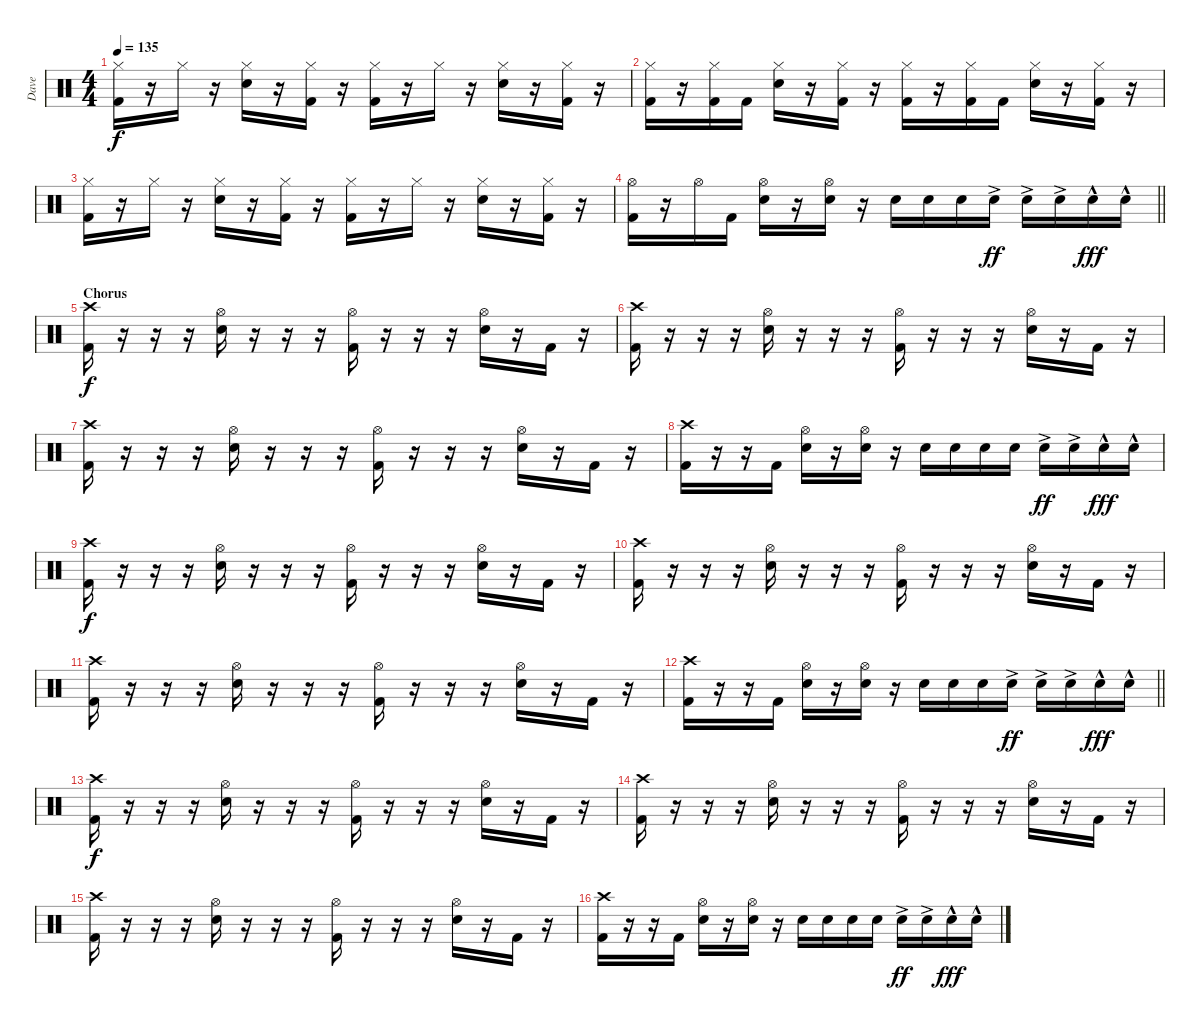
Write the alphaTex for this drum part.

\track ("Dave" "Dave") {instrument percussion}
\staff {score}
\articulation defaults
\ts (4 4)
\tempo 135
\clef neutral
\ks c
("Hi-Hat (closed)" "Kick (hit) 2").16{dy f} r.16 "Hi-Hat (closed)".16 r.16 ("Hi-Hat (closed)" "Electric Snare (hit)").16 r.16 ("Hi-Hat (closed)" "Kick (hit) 2").16 r.16 ("Hi-Hat (closed)" "Kick (hit) 2").16 r.16 "Hi-Hat (closed)".16 r.16 ("Hi-Hat (closed)" "Electric Snare (hit)").16 r.16 ("Hi-Hat (closed)" "Kick (hit) 2").16 r.16 |
("Hi-Hat (closed)" "Kick (hit) 2").16 r.16 ("Hi-Hat (closed)" "Kick (hit) 2").16 "Kick (hit) 2".16 ("Hi-Hat (closed)" "Electric Snare (hit)").16 r.16 ("Hi-Hat (closed)" "Kick (hit) 2").16 r.16 ("Hi-Hat (closed)" "Kick (hit) 2").16 r.16 ("Hi-Hat (closed)" "Kick (hit) 2").16 "Kick (hit) 2".16 ("Hi-Hat (closed)" "Electric Snare (hit)").16 r.16 ("Hi-Hat (closed)" "Kick (hit) 2").16 r.16 |
("Hi-Hat (closed)" "Kick (hit) 2").16 r.16 "Hi-Hat (closed)".16 r.16 ("Hi-Hat (closed)" "Electric Snare (hit)").16 r.16 ("Hi-Hat (closed)" "Kick (hit) 2").16 r.16 ("Hi-Hat (closed)" "Kick (hit) 2").16 r.16 "Hi-Hat (closed)".16 r.16 ("Hi-Hat (closed)" "Electric Snare (hit)").16 r.16 ("Hi-Hat (closed)" "Kick (hit) 2").16 r.16 |
\barLineRight lightlight
("Hi-Hat (open)" "Kick (hit) 2").16 r.16 "Hi-Hat (open)".16 "Kick (hit) 2".16 ("Hi-Hat (open)" "Electric Snare (hit)").16 r.16 ("Hi-Hat (open)" "Electric Snare (hit)").16 r.16 "Electric Snare (hit)".16 "Electric Snare (hit)".16 "Electric Snare (hit)".16 "Electric Snare (hit)"{ac}.16{dy ff} "Electric Snare (hit)"{ac}.16 "Electric Snare (hit)"{ac}.16 "Electric Snare (hit)"{hac}.16{dy fff} "Electric Snare (hit)"{hac}.16 |
\section ("" "Chorus")
("Crash high (hit)" "Kick (hit) 2").16{dy f} r.16 r.16 r.16 ("Hi-Hat (open)" "Electric Snare (hit)").16 r.16 r.16 r.16 ("Hi-Hat (open)" "Kick (hit) 2").16 r.16 r.16 r.16 ("Hi-Hat (open)" "Electric Snare (hit)").16 r.16 "Kick (hit) 2".16 r.16 |
("Crash high (hit)" "Kick (hit) 2").16 r.16 r.16 r.16 ("Hi-Hat (open)" "Electric Snare (hit)").16 r.16 r.16 r.16 ("Hi-Hat (open)" "Kick (hit) 2").16 r.16 r.16 r.16 ("Hi-Hat (open)" "Electric Snare (hit)").16 r.16 "Kick (hit) 2".16 r.16 |
("Crash high (hit)" "Kick (hit) 2").16 r.16 r.16 r.16 ("Hi-Hat (open)" "Electric Snare (hit)").16 r.16 r.16 r.16 ("Hi-Hat (open)" "Kick (hit) 2").16 r.16 r.16 r.16 ("Hi-Hat (open)" "Electric Snare (hit)").16 r.16 "Kick (hit) 2".16 r.16 |
("Crash high (hit)" "Kick (hit) 2").16 r.16 r.16 "Kick (hit) 2".16 ("Hi-Hat (open)" "Electric Snare (hit)").16 r.16 ("Hi-Hat (open)" "Electric Snare (hit)").16 r.16 "Electric Snare (hit)".16 "Electric Snare (hit)".16 "Electric Snare (hit)".16 "Electric Snare (hit)".16 "Electric Snare (hit)"{ac}.16{dy ff} "Electric Snare (hit)"{ac}.16 "Electric Snare (hit)"{hac}.16{dy fff} "Electric Snare (hit)"{hac}.16 |
("Crash high (hit)" "Kick (hit) 2").16{dy f} r.16 r.16 r.16 ("Hi-Hat (open)" "Electric Snare (hit)").16 r.16 r.16 r.16 ("Hi-Hat (open)" "Kick (hit) 2").16 r.16 r.16 r.16 ("Hi-Hat (open)" "Electric Snare (hit)").16 r.16 "Kick (hit) 2".16 r.16 |
("Crash high (hit)" "Kick (hit) 2").16 r.16 r.16 r.16 ("Hi-Hat (open)" "Electric Snare (hit)").16 r.16 r.16 r.16 ("Hi-Hat (open)" "Kick (hit) 2").16 r.16 r.16 r.16 ("Hi-Hat (open)" "Electric Snare (hit)").16 r.16 "Kick (hit) 2".16 r.16 |
("Crash high (hit)" "Kick (hit) 2").16 r.16 r.16 r.16 ("Hi-Hat (open)" "Electric Snare (hit)").16 r.16 r.16 r.16 ("Hi-Hat (open)" "Kick (hit) 2").16 r.16 r.16 r.16 ("Hi-Hat (open)" "Electric Snare (hit)").16 r.16 "Kick (hit) 2".16 r.16 |
\barLineRight lightlight
("Crash high (hit)" "Kick (hit) 2").16 r.16 r.16 "Kick (hit) 2".16 ("Hi-Hat (open)" "Electric Snare (hit)").16 r.16 ("Hi-Hat (open)" "Electric Snare (hit)").16 r.16 "Electric Snare (hit)".16 "Electric Snare (hit)".16 "Electric Snare (hit)".16 "Electric Snare (hit)"{ac}.16{dy ff} "Electric Snare (hit)"{ac}.16 "Electric Snare (hit)"{ac}.16 "Electric Snare (hit)"{hac}.16{dy fff} "Electric Snare (hit)"{hac}.16 |
("Crash high (hit)" "Kick (hit) 2").16{dy f} r.16 r.16 r.16 ("Hi-Hat (open)" "Electric Snare (hit)").16 r.16 r.16 r.16 ("Hi-Hat (open)" "Kick (hit) 2").16 r.16 r.16 r.16 ("Hi-Hat (open)" "Electric Snare (hit)").16 r.16 "Kick (hit) 2".16 r.16 |
("Crash high (hit)" "Kick (hit) 2").16 r.16 r.16 r.16 ("Hi-Hat (open)" "Electric Snare (hit)").16 r.16 r.16 r.16 ("Hi-Hat (open)" "Kick (hit) 2").16 r.16 r.16 r.16 ("Hi-Hat (open)" "Electric Snare (hit)").16 r.16 "Kick (hit) 2".16 r.16 |
("Crash high (hit)" "Kick (hit) 2").16 r.16 r.16 r.16 ("Hi-Hat (open)" "Electric Snare (hit)").16 r.16 r.16 r.16 ("Hi-Hat (open)" "Kick (hit) 2").16 r.16 r.16 r.16 ("Hi-Hat (open)" "Electric Snare (hit)").16 r.16 "Kick (hit) 2".16 r.16 |
("Crash high (hit)" "Kick (hit) 2").16 r.16 r.16 "Kick (hit) 2".16 ("Hi-Hat (open)" "Electric Snare (hit)").16 r.16 ("Hi-Hat (open)" "Electric Snare (hit)").16 r.16 "Electric Snare (hit)".16 "Electric Snare (hit)".16 "Electric Snare (hit)".16 "Electric Snare (hit)".16 "Electric Snare (hit)"{ac}.16{dy ff} "Electric Snare (hit)"{ac}.16 "Electric Snare (hit)"{hac}.16{dy fff} "Electric Snare (hit)"{hac}.16
